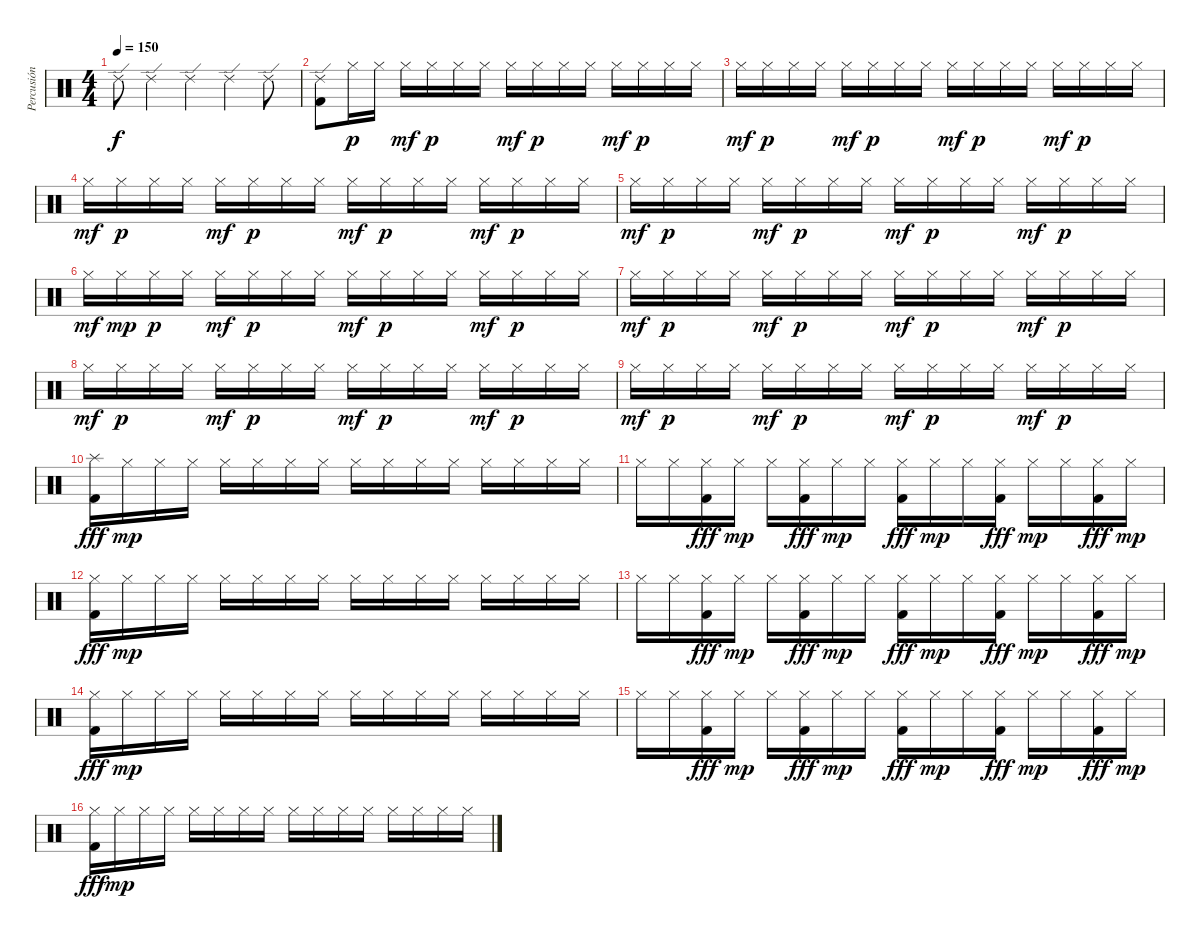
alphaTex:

\track ("Percusión" "Percusión") {instrument percussion}
\staff {score}
\articulation defaults
\ts (4 4)
\tempo 150
\clef neutral
\ks c "Ride (edge) 2".8{dy f} "Ride (edge) 2".4 "Ride (edge) 2".4 "Ride (edge) 2".4 "Ride (edge) 2".8
|
("Ride (edge) 2" "Kick (hit) 2").8{volume 16} "Hi-Hat (closed)".16{dy p} "Hi-Hat (closed)".16 "Hi-Hat (closed)".16{dy mf} "Hi-Hat (closed)".16{dy p} "Hi-Hat (closed)".16 "Hi-Hat (closed)".16 "Hi-Hat (closed)".16{dy mf} "Hi-Hat (closed)".16{dy p} "Hi-Hat (closed)".16 "Hi-Hat (closed)".16 "Hi-Hat (closed)".16{dy mf} "Hi-Hat (closed)".16{dy p} "Hi-Hat (closed)".16 "Hi-Hat (closed)".16 |
"Hi-Hat (closed)".16{dy mf} "Hi-Hat (closed)".16{dy p} "Hi-Hat (closed)".16 "Hi-Hat (closed)".16 "Hi-Hat (closed)".16{dy mf} "Hi-Hat (closed)".16{dy p} "Hi-Hat (closed)".16 "Hi-Hat (closed)".16 "Hi-Hat (closed)".16{dy mf} "Hi-Hat (closed)".16{dy p} "Hi-Hat (closed)".16 "Hi-Hat (closed)".16 "Hi-Hat (closed)".16{dy mf} "Hi-Hat (closed)".16{dy p} "Hi-Hat (closed)".16 "Hi-Hat (closed)".16 |
"Hi-Hat (closed)".16{dy mf} "Hi-Hat (closed)".16{dy p} "Hi-Hat (closed)".16 "Hi-Hat (closed)".16 "Hi-Hat (closed)".16{dy mf} "Hi-Hat (closed)".16{dy p} "Hi-Hat (closed)".16 "Hi-Hat (closed)".16 "Hi-Hat (closed)".16{dy mf} "Hi-Hat (closed)".16{dy p} "Hi-Hat (closed)".16 "Hi-Hat (closed)".16 "Hi-Hat (closed)".16{dy mf} "Hi-Hat (closed)".16{dy p} "Hi-Hat (closed)".16 "Hi-Hat (closed)".16 |
"Hi-Hat (closed)".16{dy mf} "Hi-Hat (closed)".16{dy p} "Hi-Hat (closed)".16 "Hi-Hat (closed)".16 "Hi-Hat (closed)".16{dy mf} "Hi-Hat (closed)".16{dy p} "Hi-Hat (closed)".16 "Hi-Hat (closed)".16 "Hi-Hat (closed)".16{dy mf} "Hi-Hat (closed)".16{dy p} "Hi-Hat (closed)".16 "Hi-Hat (closed)".16 "Hi-Hat (closed)".16{dy mf} "Hi-Hat (closed)".16{dy p} "Hi-Hat (closed)".16 "Hi-Hat (closed)".16 |
"Hi-Hat (closed)".16{dy mf} "Hi-Hat (closed)".16{dy mp} "Hi-Hat (closed)".16{dy p} "Hi-Hat (closed)".16 "Hi-Hat (closed)".16{dy mf} "Hi-Hat (closed)".16{dy p} "Hi-Hat (closed)".16 "Hi-Hat (closed)".16 "Hi-Hat (closed)".16{dy mf} "Hi-Hat (closed)".16{dy p} "Hi-Hat (closed)".16 "Hi-Hat (closed)".16 "Hi-Hat (closed)".16{dy mf} "Hi-Hat (closed)".16{dy p} "Hi-Hat (closed)".16 "Hi-Hat (closed)".16 |
"Hi-Hat (closed)".16{dy mf} "Hi-Hat (closed)".16{dy p} "Hi-Hat (closed)".16 "Hi-Hat (closed)".16 "Hi-Hat (closed)".16{dy mf} "Hi-Hat (closed)".16{dy p} "Hi-Hat (closed)".16 "Hi-Hat (closed)".16 "Hi-Hat (closed)".16{dy mf} "Hi-Hat (closed)".16{dy p} "Hi-Hat (closed)".16 "Hi-Hat (closed)".16 "Hi-Hat (closed)".16{dy mf} "Hi-Hat (closed)".16{dy p} "Hi-Hat (closed)".16 "Hi-Hat (closed)".16 |
"Hi-Hat (closed)".16{dy mf} "Hi-Hat (closed)".16{dy p} "Hi-Hat (closed)".16 "Hi-Hat (closed)".16 "Hi-Hat (closed)".16{dy mf} "Hi-Hat (closed)".16{dy p} "Hi-Hat (closed)".16 "Hi-Hat (closed)".16 "Hi-Hat (closed)".16{dy mf} "Hi-Hat (closed)".16{dy p} "Hi-Hat (closed)".16 "Hi-Hat (closed)".16 "Hi-Hat (closed)".16{dy mf} "Hi-Hat (closed)".16{dy p} "Hi-Hat (closed)".16 "Hi-Hat (closed)".16 |
"Hi-Hat (closed)".16{dy mf} "Hi-Hat (closed)".16{dy p} "Hi-Hat (closed)".16 "Hi-Hat (closed)".16 "Hi-Hat (closed)".16{dy mf} "Hi-Hat (closed)".16{dy p} "Hi-Hat (closed)".16 "Hi-Hat (closed)".16 "Hi-Hat (closed)".16{dy mf} "Hi-Hat (closed)".16{dy p} "Hi-Hat (closed)".16 "Hi-Hat (closed)".16 "Hi-Hat (closed)".16{dy mf} "Hi-Hat (closed)".16{dy p} "Hi-Hat (closed)".16 "Hi-Hat (closed)".16 |
("Splash (hit)" "Kick (hit) 2").16{dy fff} "Hi-Hat (closed)".16{dy mp} "Hi-Hat (closed)".16 "Hi-Hat (closed)".16 "Hi-Hat (closed)".16 "Hi-Hat (closed)".16 "Hi-Hat (closed)".16 "Hi-Hat (closed)".16 "Hi-Hat (closed)".16 "Hi-Hat (closed)".16 "Hi-Hat (closed)".16 "Hi-Hat (closed)".16 "Hi-Hat (closed)".16 "Hi-Hat (closed)".16 "Hi-Hat (closed)".16 "Hi-Hat (closed)".16 |
"Hi-Hat (closed)".16 "Hi-Hat (closed)".16 ("Hi-Hat (closed)" "Kick (hit) 2").16{dy fff} "Hi-Hat (closed)".16{dy mp} "Hi-Hat (closed)".16 ("Hi-Hat (closed)" "Kick (hit) 2").16{dy fff} "Hi-Hat (closed)".16{dy mp} "Hi-Hat (closed)".16 ("Hi-Hat (closed)" "Kick (hit) 2").16{dy fff} "Hi-Hat (closed)".16{dy mp} "Hi-Hat (closed)".16 ("Hi-Hat (closed)" "Kick (hit) 2").16{dy fff} "Hi-Hat (closed)".16{dy mp} "Hi-Hat (closed)".16 ("Hi-Hat (closed)" "Kick (hit) 2").16{dy fff} "Hi-Hat (closed)".16{dy mp} |
("Hi-Hat (closed)" "Kick (hit) 2").16{dy fff} "Hi-Hat (closed)".16{dy mp} "Hi-Hat (closed)".16 "Hi-Hat (closed)".16 "Hi-Hat (closed)".16 "Hi-Hat (closed)".16 "Hi-Hat (closed)".16 "Hi-Hat (closed)".16 "Hi-Hat (closed)".16 "Hi-Hat (closed)".16 "Hi-Hat (closed)".16 "Hi-Hat (closed)".16 "Hi-Hat (closed)".16 "Hi-Hat (closed)".16 "Hi-Hat (closed)".16 "Hi-Hat (closed)".16 |
"Hi-Hat (closed)".16 "Hi-Hat (closed)".16 ("Hi-Hat (closed)" "Kick (hit) 2").16{dy fff} "Hi-Hat (closed)".16{dy mp} "Hi-Hat (closed)".16 ("Hi-Hat (closed)" "Kick (hit) 2").16{dy fff} "Hi-Hat (closed)".16{dy mp} "Hi-Hat (closed)".16 ("Hi-Hat (closed)" "Kick (hit) 2").16{dy fff} "Hi-Hat (closed)".16{dy mp} "Hi-Hat (closed)".16 ("Hi-Hat (closed)" "Kick (hit) 2").16{dy fff} "Hi-Hat (closed)".16{dy mp} "Hi-Hat (closed)".16 ("Hi-Hat (closed)" "Kick (hit) 2").16{dy fff} "Hi-Hat (closed)".16{dy mp} |
("Hi-Hat (closed)" "Kick (hit) 2").16{dy fff} "Hi-Hat (closed)".16{dy mp} "Hi-Hat (closed)".16 "Hi-Hat (closed)".16 "Hi-Hat (closed)".16 "Hi-Hat (closed)".16 "Hi-Hat (closed)".16 "Hi-Hat (closed)".16 "Hi-Hat (closed)".16 "Hi-Hat (closed)".16 "Hi-Hat (closed)".16 "Hi-Hat (closed)".16 "Hi-Hat (closed)".16 "Hi-Hat (closed)".16 "Hi-Hat (closed)".16 "Hi-Hat (closed)".16 |
"Hi-Hat (closed)".16 "Hi-Hat (closed)".16 ("Hi-Hat (closed)" "Kick (hit) 2").16{dy fff} "Hi-Hat (closed)".16{dy mp} "Hi-Hat (closed)".16 ("Hi-Hat (closed)" "Kick (hit) 2").16{dy fff} "Hi-Hat (closed)".16{dy mp} "Hi-Hat (closed)".16 ("Hi-Hat (closed)" "Kick (hit) 2").16{dy fff} "Hi-Hat (closed)".16{dy mp} "Hi-Hat (closed)".16 ("Hi-Hat (closed)" "Kick (hit) 2").16{dy fff} "Hi-Hat (closed)".16{dy mp} "Hi-Hat (closed)".16 ("Hi-Hat (closed)" "Kick (hit) 2").16{dy fff} "Hi-Hat (closed)".16{dy mp} |
("Hi-Hat (closed)" "Kick (hit) 2").16{dy fff} "Hi-Hat (closed)".16{dy mp} "Hi-Hat (closed)".16 "Hi-Hat (closed)".16 "Hi-Hat (closed)".16 "Hi-Hat (closed)".16 "Hi-Hat (closed)".16 "Hi-Hat (closed)".16 "Hi-Hat (closed)".16 "Hi-Hat (closed)".16 "Hi-Hat (closed)".16 "Hi-Hat (closed)".16 "Hi-Hat (closed)".16 "Hi-Hat (closed)".16 "Hi-Hat (closed)".16 "Hi-Hat (closed)".16
